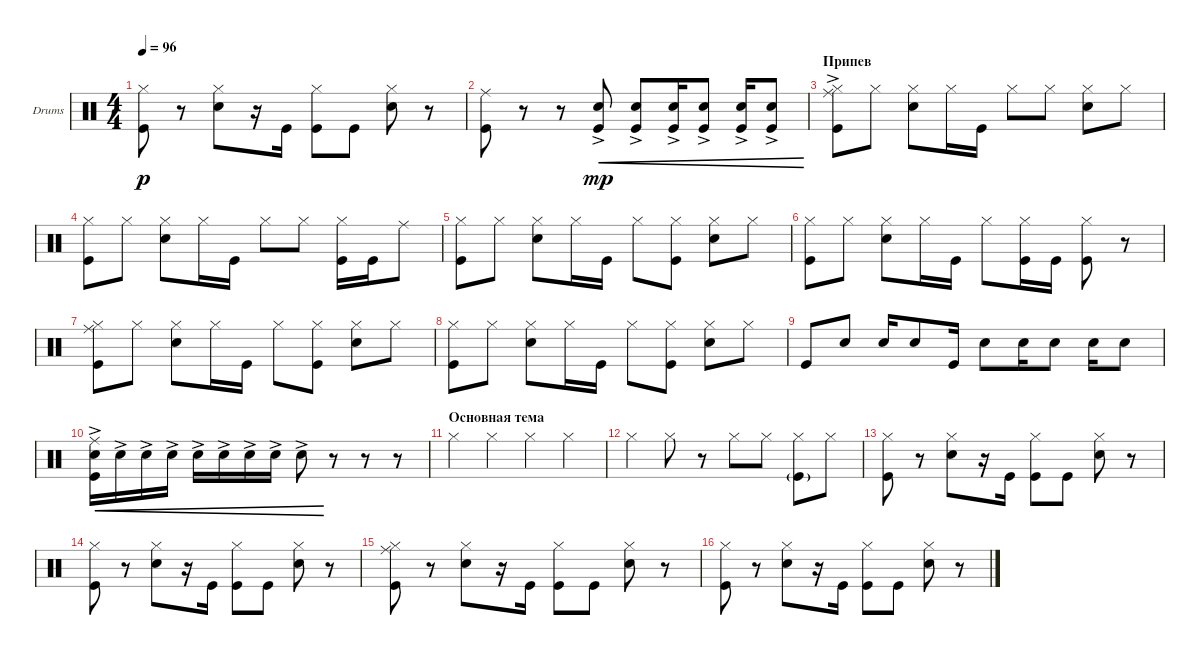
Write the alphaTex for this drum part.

\bracketExtendMode groupsimilarinstruments
\firstSystemTrackNameOrientation horizontal
\otherSystemsTrackNameOrientation horizontal
\track ("Drumkit" "Drums") {instrument percussion}
\staff {score}
\articulation defaults
\ts (4 4)
\tempo 96
\clef neutral
\ks c
("Kick (hit)" "Hi-Hat (closed)").8{dy p} r.8 ("Hi-Hat (closed)" "Snare (hit) 2").8 r.16 "Kick (hit)".16 ("Hi-Hat (closed)" "Kick (hit)").8 "Kick (hit)".8 ("Hi-Hat (closed)" "Snare (hit) 2").8 r.8 |
("Kick (hit)" "Ride (middle)").8 r.8 r.8 ("Snare (hit) 2"{ac} "Kick (hit)").8{cre dy mp} ("Snare (hit) 2"{ac} "Kick (hit)").8{cre} ("Snare (hit) 2"{ac} "Kick (hit)").16{cre} ("Snare (hit) 2"{ac} "Kick (hit)").8{cre} ("Snare (hit) 2"{ac} "Kick (hit)").16{cre} ("Snare (hit) 2"{ac} "Kick (hit)").8{cre} |
\section ("" "Припев")
("Kick (hit)"{ac} "Hi-Hat (closed)"{ac} "Ride (middle)"{ac}).8 "Hi-Hat (closed)".8 ("Hi-Hat (closed)" "Snare (hit) 2").8 "Hi-Hat (closed)".16 "Kick (hit)".16 "Hi-Hat (closed)".8 "Hi-Hat (closed)".8 ("Hi-Hat (closed)" "Snare (hit) 2").8 "Hi-Hat (closed)".8 |
("Kick (hit)" "Hi-Hat (closed)").8 "Hi-Hat (closed)".8 ("Hi-Hat (closed)" "Snare (hit) 2").8 "Hi-Hat (closed)".16 "Kick (hit)".16 "Hi-Hat (closed)".8 "Hi-Hat (closed)".8 ("Hi-Hat (closed)" "Kick (hit)").16 "Kick (hit)".16 "Ride (middle)".8 |
("Kick (hit)" "Hi-Hat (closed)").8 "Hi-Hat (closed)".8 ("Hi-Hat (closed)" "Snare (hit) 2").8 "Hi-Hat (closed)".16 "Kick (hit)".16 "Hi-Hat (closed)".8 ("Hi-Hat (closed)" "Kick (hit)").8 ("Hi-Hat (closed)" "Snare (hit) 2").8 "Hi-Hat (closed)".8 |
("Kick (hit)" "Hi-Hat (closed)").8 "Hi-Hat (closed)".8 ("Hi-Hat (closed)" "Snare (hit) 2").8 "Hi-Hat (closed)".16 "Kick (hit)".16 "Hi-Hat (closed)".8 ("Hi-Hat (closed)" "Kick (hit)").16 "Kick (hit)".16 ("Hi-Hat (closed)" "Kick (hit)").8 r.8 |
("Kick (hit)" "Hi-Hat (closed)" "Ride (middle)").8 "Hi-Hat (closed)".8 ("Hi-Hat (closed)" "Snare (hit) 2").8 "Hi-Hat (closed)".16 "Kick (hit)".16 "Hi-Hat (closed)".8 ("Hi-Hat (closed)" "Kick (hit)").8 ("Hi-Hat (closed)" "Snare (hit) 2").8 "Hi-Hat (closed)".8 |
("Kick (hit)" "Hi-Hat (closed)").8 "Hi-Hat (closed)".8 ("Hi-Hat (closed)" "Snare (hit) 2").8 "Hi-Hat (closed)".16 "Kick (hit)".16 "Hi-Hat (closed)".8 ("Hi-Hat (closed)" "Kick (hit)").8 ("Hi-Hat (closed)" "Snare (hit) 2").8 "Hi-Hat (closed)".8 |
"Kick (hit)".8 "Snare (hit) 2".8 "Snare (hit) 2".16 "Snare (hit) 2".8 "Kick (hit)".16 "Snare (hit) 2".8 "Snare (hit) 2".16 "Snare (hit) 2".8 "Snare (hit) 2".16 "Snare (hit) 2".8 |
("Ride (middle)"{ac} "Kick (hit)"{ac} "Snare (hit) 2"{ac}).16{cre} "Snare (hit) 2"{ac}.16{cre} "Snare (hit) 2"{ac}.16{cre} "Snare (hit) 2"{ac}.16{cre} "Snare (hit) 2"{ac}.16{cre} "Snare (hit) 2"{ac}.16{cre} "Snare (hit) 2"{ac}.16{cre} "Snare (hit) 2"{ac}.16{cre} "Snare (hit) 2"{ac}.8{cre} r.8 r.8 r.8 |
\section ("" "Основная тема")
"Hi-Hat (closed)".4 "Hi-Hat (closed)".4 "Hi-Hat (closed)".4 "Hi-Hat (closed)".4 |
"Hi-Hat (closed)".4 "Hi-Hat (closed)".8 r.8 "Hi-Hat (closed)".8 "Hi-Hat (closed)".8 ("Hi-Hat (closed)" "Kick (hit)"{g}).8 "Hi-Hat (closed)".8 |
("Kick (hit)" "Hi-Hat (closed)").8 r.8 ("Hi-Hat (closed)" "Snare (hit) 2").8 r.16 "Kick (hit)".16 ("Hi-Hat (closed)" "Kick (hit)").8 "Kick (hit)".8 ("Hi-Hat (closed)" "Snare (hit) 2").8 r.8 |
("Kick (hit)" "Hi-Hat (closed)").8 r.8 ("Hi-Hat (closed)" "Snare (hit) 2").8 r.16 "Kick (hit)".16 ("Hi-Hat (closed)" "Kick (hit)").8 "Kick (hit)".8 ("Hi-Hat (closed)" "Snare (hit) 2").8 r.8 |
("Kick (hit)" "Hi-Hat (closed)" "Ride (middle)").8 r.8 ("Hi-Hat (closed)" "Snare (hit) 2").8 r.16 "Kick (hit)".16 ("Hi-Hat (closed)" "Kick (hit)").8 "Kick (hit)".8 ("Hi-Hat (closed)" "Snare (hit) 2").8 r.8 |
("Kick (hit)" "Hi-Hat (closed)").8 r.8 ("Hi-Hat (closed)" "Snare (hit) 2").8 r.16 "Kick (hit)".16 ("Hi-Hat (closed)" "Kick (hit)").8 "Kick (hit)".8 ("Hi-Hat (closed)" "Snare (hit) 2").8 r.8
